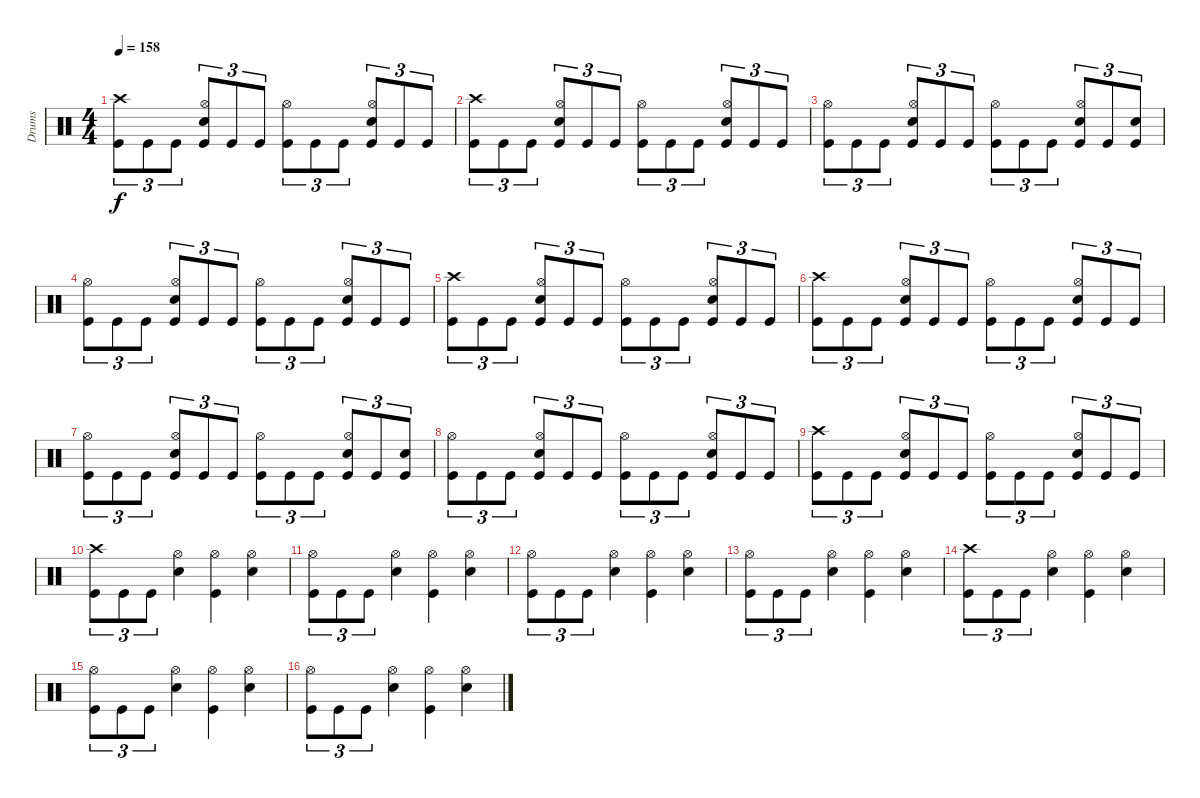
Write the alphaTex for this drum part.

\track ("Drums" "Drums") {instrument percussion}
\staff {score}
\articulation defaults
\ts (4 4)
\tempo 158
\clef neutral
\ks c
("Crash high (hit)" "Kick (hit)").8{tu (3 2) dy f} "Kick (hit)".8{tu (3 2)} "Kick (hit)".8{tu (3 2)} ("Hi-Hat (open)" "Electric Snare (hit)" "Kick (hit)").8{tu (3 2)} "Kick (hit)".8{tu (3 2)} "Kick (hit)".8{tu (3 2)} ("Hi-Hat (open)" "Kick (hit)").8{tu (3 2)} "Kick (hit)".8{tu (3 2)} "Kick (hit)".8{tu (3 2)} ("Hi-Hat (open)" "Electric Snare (hit)" "Kick (hit)").8{tu (3 2)} "Kick (hit)".8{tu (3 2)} "Kick (hit)".8{tu (3 2)} |
("Crash high (hit)" "Kick (hit)").8{tu (3 2)} "Kick (hit)".8{tu (3 2)} "Kick (hit)".8{tu (3 2)} ("Hi-Hat (open)" "Electric Snare (hit)" "Kick (hit)").8{tu (3 2)} "Kick (hit)".8{tu (3 2)} "Kick (hit)".8{tu (3 2)} ("Hi-Hat (open)" "Kick (hit)").8{tu (3 2)} "Kick (hit)".8{tu (3 2)} "Kick (hit)".8{tu (3 2)} ("Hi-Hat (open)" "Electric Snare (hit)" "Kick (hit)").8{tu (3 2)} "Kick (hit)".8{tu (3 2)} "Kick (hit)".8{tu (3 2)} |
("Hi-Hat (open)" "Kick (hit)").8{tu (3 2)} "Kick (hit)".8{tu (3 2)} "Kick (hit)".8{tu (3 2)} ("Hi-Hat (open)" "Electric Snare (hit)" "Kick (hit)").8{tu (3 2)} "Kick (hit)".8{tu (3 2)} "Kick (hit)".8{tu (3 2)} ("Hi-Hat (open)" "Kick (hit)").8{tu (3 2)} "Kick (hit)".8{tu (3 2)} "Kick (hit)".8{tu (3 2)} ("Hi-Hat (open)" "Electric Snare (hit)" "Kick (hit)").8{tu (3 2)} "Kick (hit)".8{tu (3 2)} ("Electric Snare (hit)" "Kick (hit)").8{tu (3 2)} |
("Hi-Hat (open)" "Kick (hit)").8{tu (3 2)} "Kick (hit)".8{tu (3 2)} "Kick (hit)".8{tu (3 2)} ("Hi-Hat (open)" "Electric Snare (hit)" "Kick (hit)").8{tu (3 2)} "Kick (hit)".8{tu (3 2)} "Kick (hit)".8{tu (3 2)} ("Hi-Hat (open)" "Kick (hit)").8{tu (3 2)} "Kick (hit)".8{tu (3 2)} "Kick (hit)".8{tu (3 2)} ("Hi-Hat (open)" "Electric Snare (hit)" "Kick (hit)").8{tu (3 2)} "Kick (hit)".8{tu (3 2)} "Kick (hit)".8{tu (3 2)} |
("Crash high (hit)" "Kick (hit)").8{tu (3 2)} "Kick (hit)".8{tu (3 2)} "Kick (hit)".8{tu (3 2)} ("Hi-Hat (open)" "Electric Snare (hit)" "Kick (hit)").8{tu (3 2)} "Kick (hit)".8{tu (3 2)} "Kick (hit)".8{tu (3 2)} ("Hi-Hat (open)" "Kick (hit)").8{tu (3 2)} "Kick (hit)".8{tu (3 2)} "Kick (hit)".8{tu (3 2)} ("Hi-Hat (open)" "Electric Snare (hit)" "Kick (hit)").8{tu (3 2)} "Kick (hit)".8{tu (3 2)} "Kick (hit)".8{tu (3 2)} |
("Crash high (hit)" "Kick (hit)").8{tu (3 2)} "Kick (hit)".8{tu (3 2)} "Kick (hit)".8{tu (3 2)} ("Hi-Hat (open)" "Electric Snare (hit)" "Kick (hit)").8{tu (3 2)} "Kick (hit)".8{tu (3 2)} "Kick (hit)".8{tu (3 2)} ("Hi-Hat (open)" "Kick (hit)").8{tu (3 2)} "Kick (hit)".8{tu (3 2)} "Kick (hit)".8{tu (3 2)} ("Hi-Hat (open)" "Electric Snare (hit)" "Kick (hit)").8{tu (3 2)} "Kick (hit)".8{tu (3 2)} "Kick (hit)".8{tu (3 2)} |
("Hi-Hat (open)" "Kick (hit)").8{tu (3 2)} "Kick (hit)".8{tu (3 2)} "Kick (hit)".8{tu (3 2)} ("Hi-Hat (open)" "Electric Snare (hit)" "Kick (hit)").8{tu (3 2)} "Kick (hit)".8{tu (3 2)} "Kick (hit)".8{tu (3 2)} ("Hi-Hat (open)" "Kick (hit)").8{tu (3 2)} "Kick (hit)".8{tu (3 2)} "Kick (hit)".8{tu (3 2)} ("Hi-Hat (open)" "Electric Snare (hit)" "Kick (hit)").8{tu (3 2)} "Kick (hit)".8{tu (3 2)} ("Electric Snare (hit)" "Kick (hit)").8{tu (3 2)} |
("Hi-Hat (open)" "Kick (hit)").8{tu (3 2)} "Kick (hit)".8{tu (3 2)} "Kick (hit)".8{tu (3 2)} ("Hi-Hat (open)" "Electric Snare (hit)" "Kick (hit)").8{tu (3 2)} "Kick (hit)".8{tu (3 2)} "Kick (hit)".8{tu (3 2)} ("Hi-Hat (open)" "Kick (hit)").8{tu (3 2)} "Kick (hit)".8{tu (3 2)} "Kick (hit)".8{tu (3 2)} ("Hi-Hat (open)" "Electric Snare (hit)" "Kick (hit)").8{tu (3 2)} "Kick (hit)".8{tu (3 2)} "Kick (hit)".8{tu (3 2)} |
("Crash high (hit)" "Kick (hit)").8{tu (3 2)} "Kick (hit)".8{tu (3 2)} "Kick (hit)".8{tu (3 2)} ("Hi-Hat (open)" "Electric Snare (hit)" "Kick (hit)").8{tu (3 2)} "Kick (hit)".8{tu (3 2)} "Kick (hit)".8{tu (3 2)} ("Hi-Hat (open)" "Kick (hit)").8{tu (3 2)} "Kick (hit)".8{tu (3 2)} "Kick (hit)".8{tu (3 2)} ("Hi-Hat (open)" "Electric Snare (hit)" "Kick (hit)").8{tu (3 2)} "Kick (hit)".8{tu (3 2)} "Kick (hit)".8{tu (3 2)} |
("Crash high (hit)" "Kick (hit)").8{tu (3 2)} "Kick (hit)".8{tu (3 2)} "Kick (hit)".8{tu (3 2)} ("Hi-Hat (open)" "Electric Snare (hit)").4 ("Hi-Hat (open)" "Kick (hit)").4 ("Hi-Hat (open)" "Electric Snare (hit)").4 |
("Hi-Hat (open)" "Kick (hit)").8{tu (3 2)} "Kick (hit)".8{tu (3 2)} "Kick (hit)".8{tu (3 2)} ("Hi-Hat (open)" "Electric Snare (hit)").4 ("Hi-Hat (open)" "Kick (hit)").4 ("Hi-Hat (open)" "Electric Snare (hit)").4 |
("Hi-Hat (open)" "Kick (hit)").8{tu (3 2)} "Kick (hit)".8{tu (3 2)} "Kick (hit)".8{tu (3 2)} ("Hi-Hat (open)" "Electric Snare (hit)").4 ("Hi-Hat (open)" "Kick (hit)").4 ("Hi-Hat (open)" "Electric Snare (hit)").4 |
("Hi-Hat (open)" "Kick (hit)").8{tu (3 2)} "Kick (hit)".8{tu (3 2)} "Kick (hit)".8{tu (3 2)} ("Hi-Hat (open)" "Electric Snare (hit)").4 ("Hi-Hat (open)" "Kick (hit)").4 ("Hi-Hat (open)" "Electric Snare (hit)").4 |
("Crash high (hit)" "Kick (hit)").8{tu (3 2)} "Kick (hit)".8{tu (3 2)} "Kick (hit)".8{tu (3 2)} ("Hi-Hat (open)" "Electric Snare (hit)").4 ("Hi-Hat (open)" "Kick (hit)").4 ("Hi-Hat (open)" "Electric Snare (hit)").4 |
("Hi-Hat (open)" "Kick (hit)").8{tu (3 2)} "Kick (hit)".8{tu (3 2)} "Kick (hit)".8{tu (3 2)} ("Hi-Hat (open)" "Electric Snare (hit)").4 ("Hi-Hat (open)" "Kick (hit)").4 ("Hi-Hat (open)" "Electric Snare (hit)").4 |
("Hi-Hat (open)" "Kick (hit)").8{tu (3 2)} "Kick (hit)".8{tu (3 2)} "Kick (hit)".8{tu (3 2)} ("Hi-Hat (open)" "Electric Snare (hit)").4 ("Hi-Hat (open)" "Kick (hit)").4 ("Hi-Hat (open)" "Electric Snare (hit)").4
